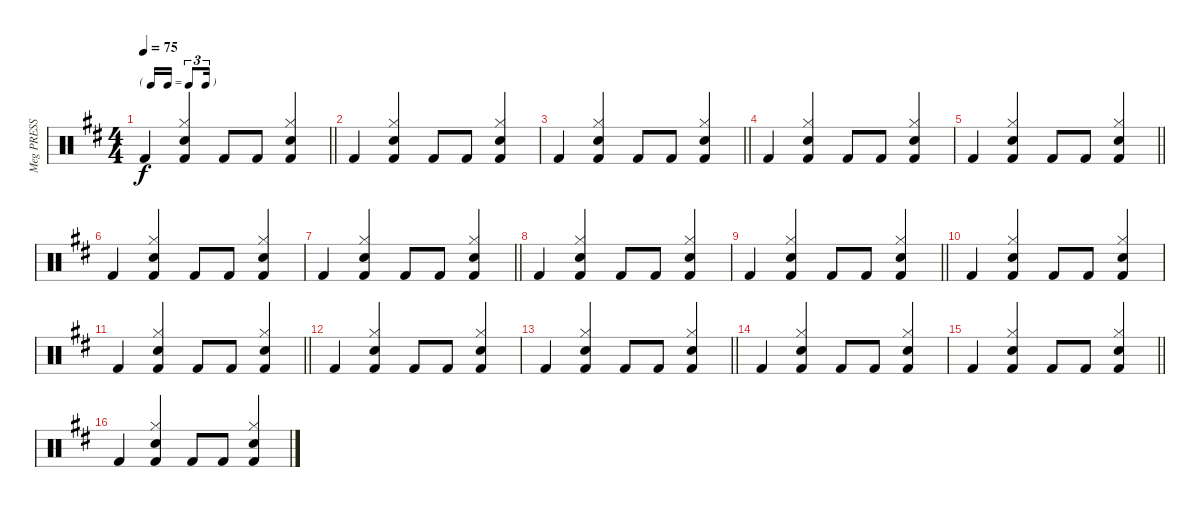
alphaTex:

\track ("Meg PRESS F5!!" "Meg PRESS ") {instrument percussion}
\staff {score}
\articulation defaults
\ts (4 4)
\tf triplet16th
\tempo 75
\clef neutral
\barLineRight lightlight
\ks d "Kick (hit) 2".4{dy f}
("Kick (hit) 2" "Hi-Hat (closed)" "Snare (hit) 2").4 "Kick (hit) 2".8 "Kick (hit) 2".8 ("Kick (hit) 2" "Hi-Hat (closed)" "Snare (hit) 2").4 |
"Kick (hit) 2".4 ("Kick (hit) 2" "Hi-Hat (closed)" "Snare (hit) 2").4 "Kick (hit) 2".8 "Kick (hit) 2".8 ("Kick (hit) 2" "Hi-Hat (closed)" "Snare (hit) 2").4 |
\barLineRight lightlight "Kick (hit) 2".4
("Kick (hit) 2" "Hi-Hat (closed)" "Snare (hit) 2").4 "Kick (hit) 2".8 "Kick (hit) 2".8 ("Kick (hit) 2" "Hi-Hat (closed)" "Snare (hit) 2").4 |
"Kick (hit) 2".4 ("Kick (hit) 2" "Hi-Hat (closed)" "Snare (hit) 2").4 "Kick (hit) 2".8 "Kick (hit) 2".8 ("Kick (hit) 2" "Hi-Hat (closed)" "Snare (hit) 2").4 |
\barLineRight lightlight "Kick (hit) 2".4
("Kick (hit) 2" "Hi-Hat (closed)" "Snare (hit) 2").4 "Kick (hit) 2".8 "Kick (hit) 2".8 ("Kick (hit) 2" "Hi-Hat (closed)" "Snare (hit) 2").4 |
"Kick (hit) 2".4 ("Kick (hit) 2" "Hi-Hat (closed)" "Snare (hit) 2").4 "Kick (hit) 2".8 "Kick (hit) 2".8 ("Kick (hit) 2" "Hi-Hat (closed)" "Snare (hit) 2").4 |
\barLineRight lightlight "Kick (hit) 2".4
("Kick (hit) 2" "Hi-Hat (closed)" "Snare (hit) 2").4 "Kick (hit) 2".8 "Kick (hit) 2".8 ("Kick (hit) 2" "Hi-Hat (closed)" "Snare (hit) 2").4 |
"Kick (hit) 2".4 ("Kick (hit) 2" "Hi-Hat (closed)" "Snare (hit) 2").4 "Kick (hit) 2".8 "Kick (hit) 2".8 ("Kick (hit) 2" "Hi-Hat (closed)" "Snare (hit) 2").4 |
\barLineRight lightlight "Kick (hit) 2".4
("Kick (hit) 2" "Hi-Hat (closed)" "Snare (hit) 2").4 "Kick (hit) 2".8 "Kick (hit) 2".8 ("Kick (hit) 2" "Hi-Hat (closed)" "Snare (hit) 2").4 |
"Kick (hit) 2".4 ("Kick (hit) 2" "Hi-Hat (closed)" "Snare (hit) 2").4 "Kick (hit) 2".8 "Kick (hit) 2".8 ("Kick (hit) 2" "Hi-Hat (closed)" "Snare (hit) 2").4 |
\barLineRight lightlight "Kick (hit) 2".4
("Kick (hit) 2" "Hi-Hat (closed)" "Snare (hit) 2").4 "Kick (hit) 2".8 "Kick (hit) 2".8 ("Kick (hit) 2" "Hi-Hat (closed)" "Snare (hit) 2").4 |
"Kick (hit) 2".4 ("Kick (hit) 2" "Hi-Hat (closed)" "Snare (hit) 2").4 "Kick (hit) 2".8 "Kick (hit) 2".8 ("Kick (hit) 2" "Hi-Hat (closed)" "Snare (hit) 2").4 |
\barLineRight lightlight "Kick (hit) 2".4
("Kick (hit) 2" "Hi-Hat (closed)" "Snare (hit) 2").4 "Kick (hit) 2".8 "Kick (hit) 2".8 ("Kick (hit) 2" "Hi-Hat (closed)" "Snare (hit) 2").4 |
"Kick (hit) 2".4 ("Kick (hit) 2" "Hi-Hat (closed)" "Snare (hit) 2").4 "Kick (hit) 2".8 "Kick (hit) 2".8 ("Kick (hit) 2" "Hi-Hat (closed)" "Snare (hit) 2").4 |
\barLineRight lightlight "Kick (hit) 2".4
("Kick (hit) 2" "Hi-Hat (closed)" "Snare (hit) 2").4 "Kick (hit) 2".8 "Kick (hit) 2".8 ("Kick (hit) 2" "Hi-Hat (closed)" "Snare (hit) 2").4 |
"Kick (hit) 2".4 ("Kick (hit) 2" "Hi-Hat (closed)" "Snare (hit) 2").4 "Kick (hit) 2".8 "Kick (hit) 2".8 ("Kick (hit) 2" "Hi-Hat (closed)" "Snare (hit) 2").4
